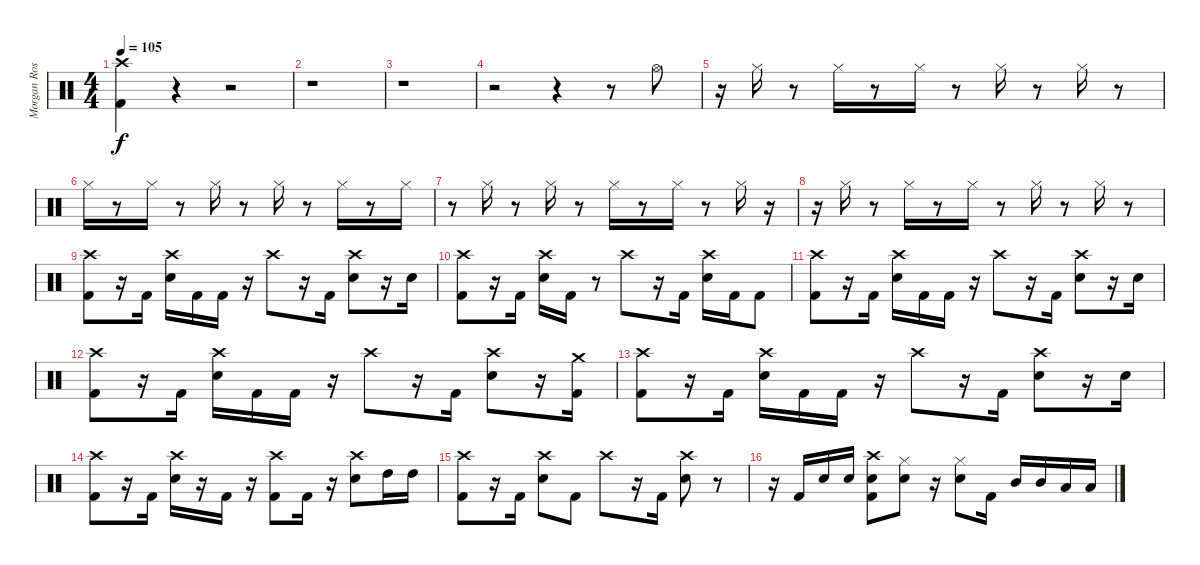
\track ("Morgan Rose - Drums" "Morgan Ros") {instrument percussion}
\staff {score}
\articulation defaults
\ts (4 4)
\tempo 105
\clef neutral
\ks c
("Crash high (hit)" "Kick (hit) 2").4{dy f} r.4 r.2 |
r.1 |
r.1 |
r.2 r.4 r.8 "Hi-Hat (open)".8 |
r.16 "Hi-Hat (closed)".16 r.8 "Hi-Hat (closed)".16 r.8 "Hi-Hat (closed)".16 r.8 "Hi-Hat (closed)".16 r.8 "Hi-Hat (closed)".16 r.8 |
"Hi-Hat (closed)".16 r.8 "Hi-Hat (closed)".16 r.8 "Hi-Hat (closed)".16 r.8 "Hi-Hat (closed)".16 r.8 "Hi-Hat (closed)".16 r.8 "Hi-Hat (closed)".16 |
r.8 "Hi-Hat (closed)".16 r.8 "Hi-Hat (closed)".16 r.8 "Hi-Hat (closed)".16 r.8 "Hi-Hat (closed)".16 r.8 "Hi-Hat (closed)".16 r.16 |
r.16 "Hi-Hat (closed)".16 r.8 "Hi-Hat (closed)".16 r.8 "Hi-Hat (closed)".16 r.8 "Hi-Hat (closed)".16 r.8 "Hi-Hat (closed)".16 r.8 |
("Crash high (hit)" "Kick (hit) 2").8 r.16 "Kick (hit) 2".16 ("Crash high (hit)" "Electric Snare (hit)").16 "Kick (hit) 2".16 "Kick (hit) 2".16 r.16 "Crash high (hit)".8 r.16 "Kick (hit) 2".16 ("Crash high (hit)" "Electric Snare (hit)").8 r.16 "Electric Snare (hit)".16 |
("Crash high (hit)" "Kick (hit) 2").8 r.16 "Kick (hit) 2".16 ("Crash high (hit)" "Electric Snare (hit)").16 "Kick (hit) 2".16 r.8 "Crash high (hit)".8 r.16 "Kick (hit) 2".16 ("Crash high (hit)" "Electric Snare (hit)").16 "Kick (hit) 2".16 "Kick (hit) 2".8 |
("Crash high (hit)" "Kick (hit) 2").8 r.16 "Kick (hit) 2".16 ("Crash high (hit)" "Electric Snare (hit)").16 "Kick (hit) 2".16 "Kick (hit) 2".16 r.16 "Crash high (hit)".8 r.16 "Kick (hit) 2".16 ("Crash high (hit)" "Electric Snare (hit)").8 r.16 "Electric Snare (hit)".16 |
("Crash high (hit)" "Kick (hit) 2").8 r.16 "Kick (hit) 2".16 ("Crash high (hit)" "Electric Snare (hit)").16 "Kick (hit) 2".16 "Kick (hit) 2".16 r.16 "Crash high (hit)".8 r.16 "Kick (hit) 2".16 ("Crash high (hit)" "Electric Snare (hit)").8 r.16 ("Crash medium (hit)" "Kick (hit) 2").16 |
("Crash high (hit)" "Kick (hit) 2").8 r.16 "Kick (hit) 2".16 ("Crash high (hit)" "Electric Snare (hit)").16 "Kick (hit) 2".16 "Kick (hit) 2".16 r.16 "Crash high (hit)".8 r.16 "Kick (hit) 2".16 ("Crash high (hit)" "Electric Snare (hit)").8 r.16 "Electric Snare (hit)".16 |
("Crash high (hit)" "Kick (hit) 2").8 r.16 "Kick (hit) 2".16 ("Crash high (hit)" "Electric Snare (hit)").16 r.16 "Kick (hit) 2".16 r.16 ("Crash high (hit)" "Kick (hit) 2").8 "Kick (hit) 2".16 r.16 ("Crash high (hit)" "Electric Snare (hit)").8 "High Tom (hit)".16 "High Tom (hit)".16 |
("Crash high (hit)" "Kick (hit) 2").8 r.16 "Kick (hit) 2".16 ("Crash high (hit)" "Electric Snare (hit)").8 "Kick (hit) 2".8 "Crash high (hit)".8 r.16 "Kick (hit) 2".16 ("Crash high (hit)" "Electric Snare (hit)").8 r.8 |
r.16 "Kick (hit) 2".16 "Electric Snare (hit)".16 "Electric Snare (hit)".16 ("Crash high (hit)" "Electric Snare (hit)" "Kick (hit) 2").8 ("Hi-Hat (closed)" "Electric Snare (hit)").8 r.16 ("Hi-Hat (closed)" "Electric Snare (hit)").8 "Kick (hit) 2".16 "Mid Tom (hit)".16 "Mid Tom (hit)".16 "Low Tom (hit)".16 "Low Tom (hit)".16
